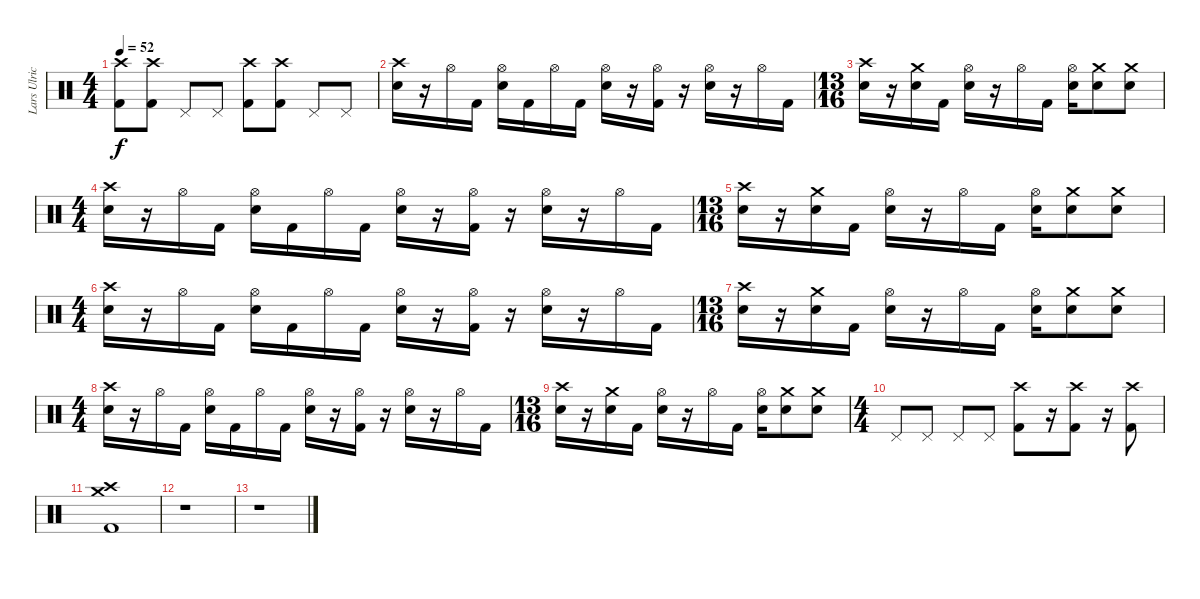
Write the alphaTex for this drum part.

\track ("Lars Ulrich" "Lars Ulric") {instrument percussion}
\staff {score}
\articulation defaults
\ts (4 4)
\tempo 52
\clef neutral
\ks c
("Crash high (hit)" "Kick (hit) 2").8{dy f} ("Crash high (hit)" "Kick (hit) 2").8 "Pedal Hi-Hat (hit)".8 "Pedal Hi-Hat (hit)".8 ("Crash high (hit)" "Kick (hit) 2").8 ("Crash high (hit)" "Kick (hit) 2").8 "Pedal Hi-Hat (hit)".8 "Pedal Hi-Hat (hit)".8 |
("Crash high (hit)" "Snare (hit) 2").16 r.16 "Hi-Hat (open)".16 "Kick (hit) 2".16 ("Hi-Hat (open)" "Snare (hit) 2").16 "Kick (hit) 2".16 "Hi-Hat (open)".16 "Kick (hit) 2".16 ("Hi-Hat (open)" "Snare (hit) 2").16 r.16 ("Hi-Hat (open)" "Kick (hit) 2").16 r.16 ("Hi-Hat (open)" "Snare (hit) 2").16 r.16 "Hi-Hat (open)".16 "Kick (hit) 2".16 |
\ts (13 16)
("Crash high (hit)" "Snare (hit) 2").16 r.16 ("Crash medium (hit)" "Snare (hit) 2").16 "Kick (hit) 2".16 ("Hi-Hat (open)" "Snare (hit) 2").16 r.16 "Hi-Hat (open)".16 "Kick (hit) 2".16 ("Hi-Hat (open)" "Snare (hit) 2").16 ("Crash medium (hit)" "Snare (hit) 2").8 ("Crash medium (hit)" "Snare (hit) 2").8 |
\ts (4 4)
("Crash high (hit)" "Snare (hit) 2").16 r.16 "Hi-Hat (open)".16 "Kick (hit) 2".16 ("Hi-Hat (open)" "Snare (hit) 2").16 "Kick (hit) 2".16 "Hi-Hat (open)".16 "Kick (hit) 2".16 ("Hi-Hat (open)" "Snare (hit) 2").16 r.16 ("Hi-Hat (open)" "Kick (hit) 2").16 r.16 ("Hi-Hat (open)" "Snare (hit) 2").16 r.16 "Hi-Hat (open)".16 "Kick (hit) 2".16 |
\ts (13 16)
("Crash high (hit)" "Snare (hit) 2").16 r.16 ("Crash medium (hit)" "Snare (hit) 2").16 "Kick (hit) 2".16 ("Hi-Hat (open)" "Snare (hit) 2").16 r.16 "Hi-Hat (open)".16 "Kick (hit) 2".16 ("Hi-Hat (open)" "Snare (hit) 2").16 ("Crash medium (hit)" "Snare (hit) 2").8 ("Crash medium (hit)" "Snare (hit) 2").8 |
\ts (4 4)
("Crash high (hit)" "Snare (hit) 2").16 r.16 "Hi-Hat (open)".16 "Kick (hit) 2".16 ("Hi-Hat (open)" "Snare (hit) 2").16 "Kick (hit) 2".16 "Hi-Hat (open)".16 "Kick (hit) 2".16 ("Hi-Hat (open)" "Snare (hit) 2").16 r.16 ("Hi-Hat (open)" "Kick (hit) 2").16 r.16 ("Hi-Hat (open)" "Snare (hit) 2").16 r.16 "Hi-Hat (open)".16 "Kick (hit) 2".16 |
\ts (13 16)
("Crash high (hit)" "Snare (hit) 2").16 r.16 ("Crash medium (hit)" "Snare (hit) 2").16 "Kick (hit) 2".16 ("Hi-Hat (open)" "Snare (hit) 2").16 r.16 "Hi-Hat (open)".16 "Kick (hit) 2".16 ("Hi-Hat (open)" "Snare (hit) 2").16 ("Crash medium (hit)" "Snare (hit) 2").8 ("Crash medium (hit)" "Snare (hit) 2").8 |
\ts (4 4)
("Crash high (hit)" "Snare (hit) 2").16 r.16 "Hi-Hat (open)".16 "Kick (hit) 2".16 ("Hi-Hat (open)" "Snare (hit) 2").16 "Kick (hit) 2".16 "Hi-Hat (open)".16 "Kick (hit) 2".16 ("Hi-Hat (open)" "Snare (hit) 2").16 r.16 ("Hi-Hat (open)" "Kick (hit) 2").16 r.16 ("Hi-Hat (open)" "Snare (hit) 2").16 r.16 "Hi-Hat (open)".16 "Kick (hit) 2".16 |
\ts (13 16)
("Crash high (hit)" "Snare (hit) 2").16 r.16 ("Crash medium (hit)" "Snare (hit) 2").16 "Kick (hit) 2".16 ("Hi-Hat (open)" "Snare (hit) 2").16 r.16 "Hi-Hat (open)".16 "Kick (hit) 2".16 ("Hi-Hat (open)" "Snare (hit) 2").16 ("Crash medium (hit)" "Snare (hit) 2").8 ("Crash medium (hit)" "Snare (hit) 2").8 |
\ts (4 4)
"Pedal Hi-Hat (hit)".8 "Pedal Hi-Hat (hit)".8 "Pedal Hi-Hat (hit)".8 "Pedal Hi-Hat (hit)".8 ("Crash high (hit)" "Kick (hit) 2").8 r.16 ("Crash high (hit)" "Kick (hit) 2").8 r.16 ("Crash high (hit)" "Kick (hit) 2").8 |
("Crash high (hit)" "Crash medium (hit)" "Kick (hit) 2").1 |
r.1 |
r.1
